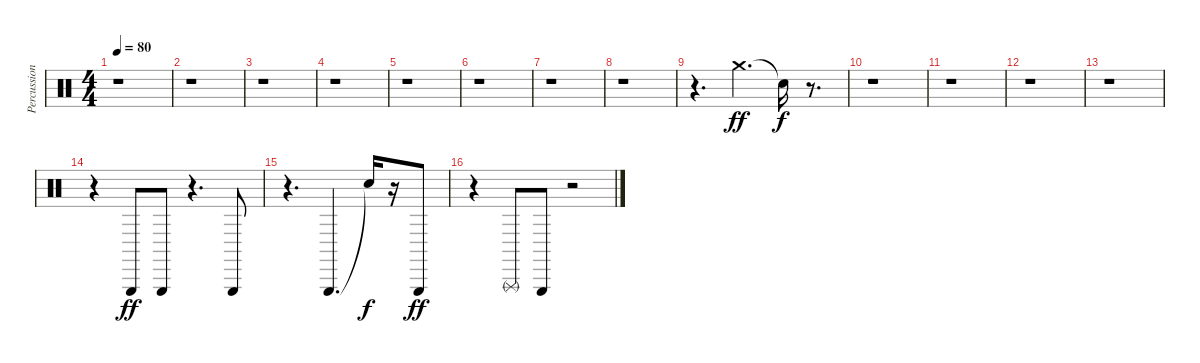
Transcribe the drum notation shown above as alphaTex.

\track ("Percussion" "Percussion") {instrument percussion}
\staff {score}
\articulation defaults
\ts (4 4)
\tempo 80
\clef neutral
\ks c
r.1{dy ff} |
r.1 |
r.1 |
r.1 |
r.1 |
r.1 |
r.1 |
r.1 |
r.4{d} "Crash medium (hit)".4{d} "Snare (hit)"{t}.16{dy f} r.8{d} |
r.1 |
r.1 |
r.1 |
r.1 |
r.4 "Triangle (hit)".8{dy ff} "Triangle (hit)".8 r.4{d} "Triangle (hit)".8 |
r.4{d} "Triangle (hit)".4{d} "Snare (hit)"{t}.16{dy f} r.16 "Triangle (hit)".8{dy ff} |
r.4 "Triangle (rnute)".8 "Triangle (hit)".8 r.2
